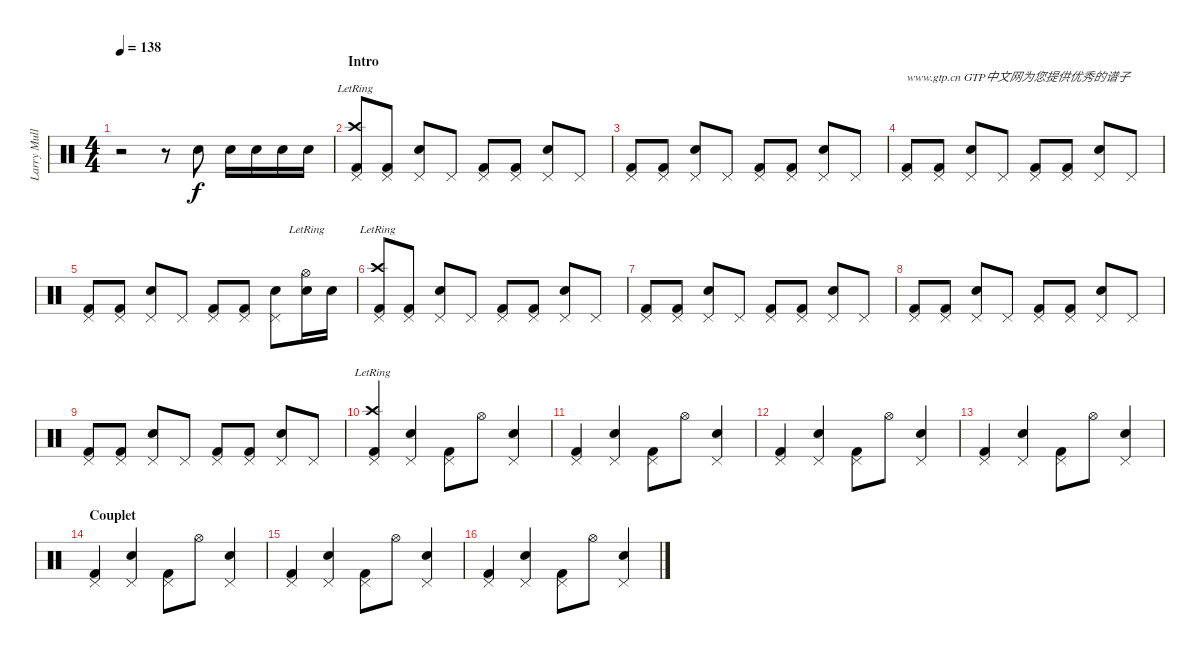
\track ("Larry Mullen" "Larry Mull") {instrument percussion}
\staff {score}
\articulation defaults
\ts (4 4)
\tempo 138
\clef neutral
\ks c
r.2{dy f} r.8 "Snare (hit) 2".8 "Snare (hit) 2".16 "Snare (hit) 2".16 "Snare (hit) 2".16 "Snare (hit) 2".16 |
\section ("" "Intro")
("Kick (hit) 2" "Crash high (hit)"{lr} "Pedal Hi-Hat (hit)").8 ("Kick (hit) 2" "Pedal Hi-Hat (hit)").8 ("Snare (hit) 2" "Pedal Hi-Hat (hit)").8 "Pedal Hi-Hat (hit)".8 ("Kick (hit) 2" "Pedal Hi-Hat (hit)").8 ("Kick (hit) 2" "Pedal Hi-Hat (hit)").8 ("Snare (hit) 2" "Pedal Hi-Hat (hit)").8 "Pedal Hi-Hat (hit)".8 |
("Kick (hit) 2" "Pedal Hi-Hat (hit)").8 ("Kick (hit) 2" "Pedal Hi-Hat (hit)").8 ("Snare (hit) 2" "Pedal Hi-Hat (hit)").8 "Pedal Hi-Hat (hit)".8 ("Kick (hit) 2" "Pedal Hi-Hat (hit)").8 ("Kick (hit) 2" "Pedal Hi-Hat (hit)").8 ("Snare (hit) 2" "Pedal Hi-Hat (hit)").8 "Pedal Hi-Hat (hit)".8 |
("Kick (hit) 2" "Pedal Hi-Hat (hit)").8{txt "www.gtp.cn GTP中文网为您提供优秀的谱子"} ("Kick (hit) 2" "Pedal Hi-Hat (hit)").8 ("Snare (hit) 2" "Pedal Hi-Hat (hit)").8 "Pedal Hi-Hat (hit)".8 ("Kick (hit) 2" "Pedal Hi-Hat (hit)").8 ("Kick (hit) 2" "Pedal Hi-Hat (hit)").8 ("Snare (hit) 2" "Pedal Hi-Hat (hit)").8 "Pedal Hi-Hat (hit)".8 |
("Kick (hit) 2" "Pedal Hi-Hat (hit)").8 ("Kick (hit) 2" "Pedal Hi-Hat (hit)").8 ("Snare (hit) 2" "Pedal Hi-Hat (hit)").8 "Pedal Hi-Hat (hit)".8 ("Kick (hit) 2" "Pedal Hi-Hat (hit)").8 ("Kick (hit) 2" "Pedal Hi-Hat (hit)").8 ("Snare (hit) 2" "Pedal Hi-Hat (hit)").8 ("Snare (hit) 2" "Hi-Hat (open)"{lr}).16 "Snare (hit) 2".16 |
("Kick (hit) 2" "Crash high (hit)"{lr} "Pedal Hi-Hat (hit)").8 ("Kick (hit) 2" "Pedal Hi-Hat (hit)").8 ("Snare (hit) 2" "Pedal Hi-Hat (hit)").8 "Pedal Hi-Hat (hit)".8 ("Kick (hit) 2" "Pedal Hi-Hat (hit)").8 ("Kick (hit) 2" "Pedal Hi-Hat (hit)").8 ("Snare (hit) 2" "Pedal Hi-Hat (hit)").8 "Pedal Hi-Hat (hit)".8 |
("Kick (hit) 2" "Pedal Hi-Hat (hit)").8 ("Kick (hit) 2" "Pedal Hi-Hat (hit)").8 ("Snare (hit) 2" "Pedal Hi-Hat (hit)").8 "Pedal Hi-Hat (hit)".8 ("Kick (hit) 2" "Pedal Hi-Hat (hit)").8 ("Kick (hit) 2" "Pedal Hi-Hat (hit)").8 ("Snare (hit) 2" "Pedal Hi-Hat (hit)").8 "Pedal Hi-Hat (hit)".8 |
("Kick (hit) 2" "Pedal Hi-Hat (hit)").8 ("Kick (hit) 2" "Pedal Hi-Hat (hit)").8 ("Snare (hit) 2" "Pedal Hi-Hat (hit)").8 "Pedal Hi-Hat (hit)".8 ("Kick (hit) 2" "Pedal Hi-Hat (hit)").8 ("Kick (hit) 2" "Pedal Hi-Hat (hit)").8 ("Snare (hit) 2" "Pedal Hi-Hat (hit)").8 "Pedal Hi-Hat (hit)".8 |
("Kick (hit) 2" "Pedal Hi-Hat (hit)").8 ("Kick (hit) 2" "Pedal Hi-Hat (hit)").8 ("Snare (hit) 2" "Pedal Hi-Hat (hit)").8 "Pedal Hi-Hat (hit)".8 ("Kick (hit) 2" "Pedal Hi-Hat (hit)").8 ("Kick (hit) 2" "Pedal Hi-Hat (hit)").8 ("Snare (hit) 2" "Pedal Hi-Hat (hit)").8 "Pedal Hi-Hat (hit)".8 |
("Kick (hit) 2" "Pedal Hi-Hat (hit)" "Crash high (hit)"{lr}).4 ("Snare (hit) 2" "Pedal Hi-Hat (hit)").4 ("Kick (hit) 2" "Pedal Hi-Hat (hit)").8 "Hi-Hat (open)".8 ("Snare (hit) 2" "Pedal Hi-Hat (hit)").4 |
("Kick (hit) 2" "Pedal Hi-Hat (hit)").4 ("Snare (hit) 2" "Pedal Hi-Hat (hit)").4 ("Kick (hit) 2" "Pedal Hi-Hat (hit)").8 "Hi-Hat (open)".8 ("Snare (hit) 2" "Pedal Hi-Hat (hit)").4 |
("Kick (hit) 2" "Pedal Hi-Hat (hit)").4 ("Snare (hit) 2" "Pedal Hi-Hat (hit)").4 ("Kick (hit) 2" "Pedal Hi-Hat (hit)").8 "Hi-Hat (open)".8 ("Snare (hit) 2" "Pedal Hi-Hat (hit)").4 |
("Kick (hit) 2" "Pedal Hi-Hat (hit)").4 ("Snare (hit) 2" "Pedal Hi-Hat (hit)").4 ("Kick (hit) 2" "Pedal Hi-Hat (hit)").8 "Hi-Hat (open)".8 ("Snare (hit) 2" "Pedal Hi-Hat (hit)").4 |
\section ("" "Couplet")
("Kick (hit) 2" "Pedal Hi-Hat (hit)").4 ("Snare (hit) 2" "Pedal Hi-Hat (hit)").4 ("Kick (hit) 2" "Pedal Hi-Hat (hit)").8 "Hi-Hat (open)".8 ("Snare (hit) 2" "Pedal Hi-Hat (hit)").4 |
("Kick (hit) 2" "Pedal Hi-Hat (hit)").4 ("Snare (hit) 2" "Pedal Hi-Hat (hit)").4 ("Kick (hit) 2" "Pedal Hi-Hat (hit)").8 "Hi-Hat (open)".8 ("Snare (hit) 2" "Pedal Hi-Hat (hit)").4 |
("Kick (hit) 2" "Pedal Hi-Hat (hit)").4 ("Snare (hit) 2" "Pedal Hi-Hat (hit)").4 ("Kick (hit) 2" "Pedal Hi-Hat (hit)").8 "Hi-Hat (open)".8 ("Snare (hit) 2" "Pedal Hi-Hat (hit)").4
